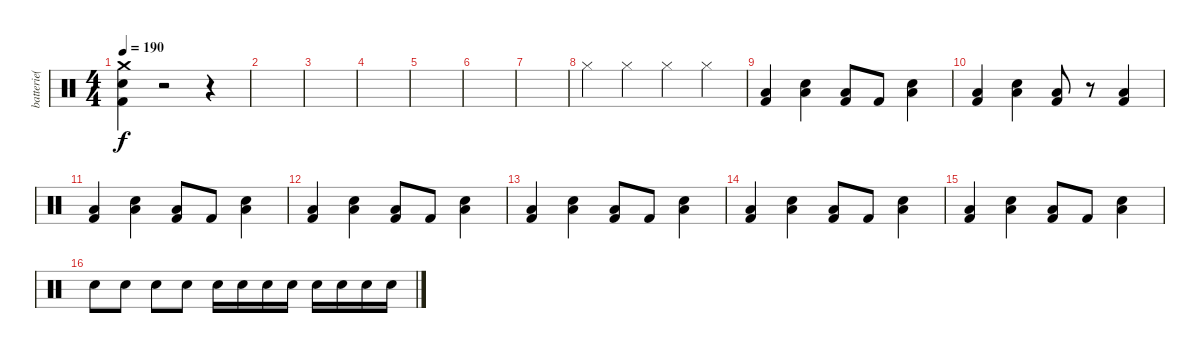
\track ("batterie( Byron McMackin )" "batterie( ") {instrument percussion}
\staff {score}
\articulation defaults
\ts (4 4)
\tempo 190
\clef neutral
\ks c
("Crash medium (hit)" "Snare (hit) 2" "Kick (hit) 2").4{dy f} r.2 r.4 |
|
|
|
|
|
|
"Hi-Hat (closed)".4 "Hi-Hat (closed)".4 "Hi-Hat (closed)".4 "Hi-Hat (closed)".4 |
("Low Tom (hit)" "Kick (hit) 2").4 ("Low Tom (hit)" "Snare (hit) 2").4 ("Low Tom (hit)" "Kick (hit) 2").8 "Kick (hit) 2".8 ("Low Tom (hit)" "Snare (hit) 2").4 |
("Low Tom (hit)" "Kick (hit) 2").4 ("Low Tom (hit)" "Snare (hit) 2").4 ("Low Tom (hit)" "Kick (hit) 2").8 r.8 ("Low Tom (hit)" "Kick (hit) 2").4 |
("Low Tom (hit)" "Kick (hit) 2").4 ("Low Tom (hit)" "Snare (hit) 2").4 ("Low Tom (hit)" "Kick (hit) 2").8 "Kick (hit) 2".8 ("Low Tom (hit)" "Snare (hit) 2").4 |
("Low Tom (hit)" "Kick (hit) 2").4 ("Low Tom (hit)" "Snare (hit) 2").4 ("Low Tom (hit)" "Kick (hit) 2").8 "Kick (hit) 2".8 ("Low Tom (hit)" "Snare (hit) 2").4 |
("Low Tom (hit)" "Kick (hit) 2").4 ("Low Tom (hit)" "Snare (hit) 2").4 ("Low Tom (hit)" "Kick (hit) 2").8 "Kick (hit) 2".8 ("Low Tom (hit)" "Snare (hit) 2").4 |
("Low Tom (hit)" "Kick (hit) 2").4 ("Low Tom (hit)" "Snare (hit) 2").4 ("Low Tom (hit)" "Kick (hit) 2").8 "Kick (hit) 2".8 ("Low Tom (hit)" "Snare (hit) 2").4 |
("Low Tom (hit)" "Kick (hit) 2").4 ("Low Tom (hit)" "Snare (hit) 2").4 ("Low Tom (hit)" "Kick (hit) 2").8 "Kick (hit) 2".8 ("Low Tom (hit)" "Snare (hit) 2").4 |
"Snare (hit) 2".8 "Snare (hit) 2".8 "Snare (hit) 2".8 "Snare (hit) 2".8 "Snare (hit) 2".16 "Snare (hit) 2".16 "Snare (hit) 2".16 "Snare (hit) 2".16 "Snare (hit) 2".16 "Snare (hit) 2".16 "Snare (hit) 2".16 "Snare (hit) 2".16
